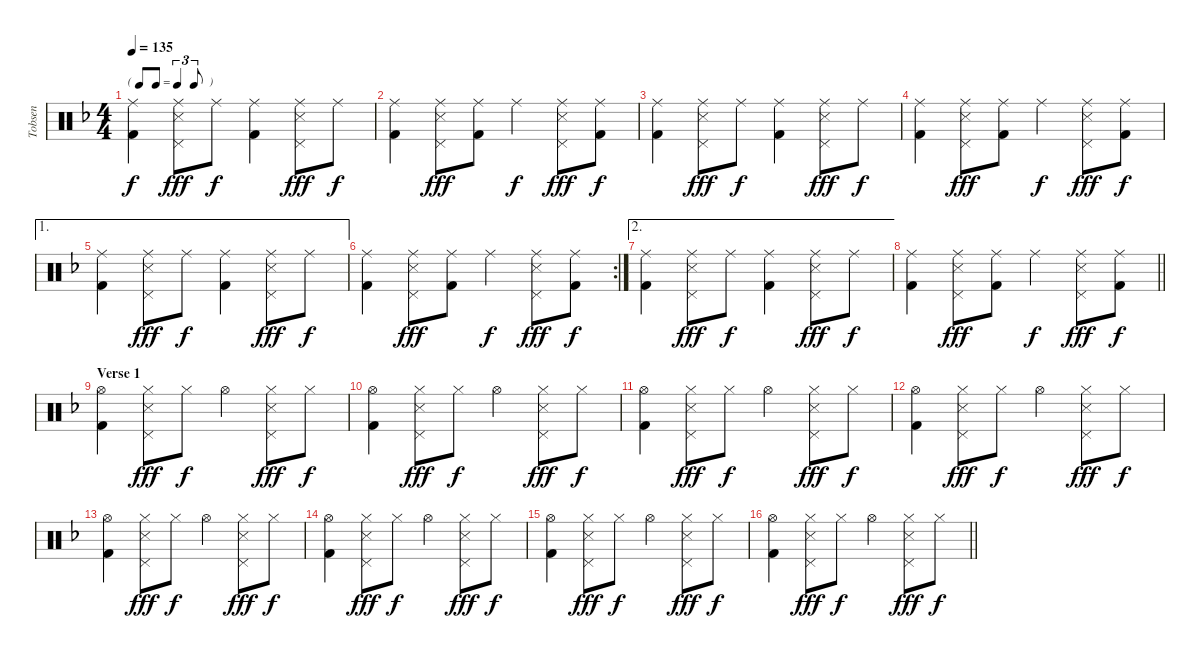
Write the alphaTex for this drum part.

\track ("Tobsen" "Tobsen") {instrument percussion}
\staff {score}
\articulation defaults
\ts (4 4)
\tf triplet8th
\tempo 135
\clef neutral
\ks f
("Ride (middle)" "Kick (hit) 2").4{dy f} ("Ride (middle)" "Pedal Hi-Hat (hit)" "Snare (side stick) 3").8{dy fff} "Ride (middle)".8{dy f} ("Ride (middle)" "Kick (hit) 2").4 ("Ride (middle)" "Pedal Hi-Hat (hit)" "Snare (side stick) 3").8{dy fff} "Ride (middle)".8{dy f} |
("Ride (middle)" "Kick (hit) 2").4 ("Ride (middle)" "Pedal Hi-Hat (hit)" "Snare (side stick) 3").8{dy fff} ("Ride (middle)" "Kick (hit) 2").8 "Ride (middle)".4{dy f} ("Ride (middle)" "Pedal Hi-Hat (hit)" "Snare (side stick) 3").8{dy fff} ("Ride (middle)" "Kick (hit) 2").8{dy f} |
("Ride (middle)" "Kick (hit) 2").4 ("Ride (middle)" "Pedal Hi-Hat (hit)" "Snare (side stick) 3").8{dy fff} "Ride (middle)".8{dy f} ("Ride (middle)" "Kick (hit) 2").4 ("Ride (middle)" "Pedal Hi-Hat (hit)" "Snare (side stick) 3").8{dy fff} "Ride (middle)".8{dy f} |
("Ride (middle)" "Kick (hit) 2").4 ("Ride (middle)" "Pedal Hi-Hat (hit)" "Snare (side stick) 3").8{dy fff} ("Ride (middle)" "Kick (hit) 2").8 "Ride (middle)".4{dy f} ("Ride (middle)" "Pedal Hi-Hat (hit)" "Snare (side stick) 3").8{dy fff} ("Ride (middle)" "Kick (hit) 2").8{dy f} |
\ae 1
("Ride (middle)" "Kick (hit) 2").4 ("Ride (middle)" "Pedal Hi-Hat (hit)" "Snare (side stick) 3").8{dy fff} "Ride (middle)".8{dy f} ("Ride (middle)" "Kick (hit) 2").4 ("Ride (middle)" "Pedal Hi-Hat (hit)" "Snare (side stick) 3").8{dy fff} "Ride (middle)".8{dy f} |
\rc 2
("Ride (middle)" "Kick (hit) 2").4 ("Ride (middle)" "Pedal Hi-Hat (hit)" "Snare (side stick) 3").8{dy fff} ("Ride (middle)" "Kick (hit) 2").8 "Ride (middle)".4{dy f} ("Ride (middle)" "Pedal Hi-Hat (hit)" "Snare (side stick) 3").8{dy fff} ("Ride (middle)" "Kick (hit) 2").8{dy f} |
\ae 2
("Ride (middle)" "Kick (hit) 2").4 ("Ride (middle)" "Pedal Hi-Hat (hit)" "Snare (side stick) 3").8{dy fff} "Ride (middle)".8{dy f} ("Ride (middle)" "Kick (hit) 2").4 ("Ride (middle)" "Pedal Hi-Hat (hit)" "Snare (side stick) 3").8{dy fff} "Ride (middle)".8{dy f} |
\barLineRight lightlight
("Ride (middle)" "Kick (hit) 2").4 ("Ride (middle)" "Pedal Hi-Hat (hit)" "Snare (side stick) 3").8{dy fff} ("Ride (middle)" "Kick (hit) 2").8 "Ride (middle)".4{dy f} ("Ride (middle)" "Pedal Hi-Hat (hit)" "Snare (side stick) 3").8{dy fff} ("Ride (middle)" "Kick (hit) 2").8{dy f} |
\section ("" "Verse 1")
("Hi-Hat (open)" "Kick (hit) 2").4{volume 10} ("Hi-Hat (closed)" "Pedal Hi-Hat (hit)" "Snare (side stick) 3").8{dy fff} "Hi-Hat (closed)".8{dy f} "Hi-Hat (open)".4 ("Hi-Hat (closed)" "Pedal Hi-Hat (hit)" "Snare (side stick) 3").8{dy fff} "Hi-Hat (closed)".8{dy f} |
("Hi-Hat (open)" "Kick (hit) 2").4 ("Hi-Hat (closed)" "Pedal Hi-Hat (hit)" "Snare (side stick) 3").8{dy fff} "Hi-Hat (closed)".8{dy f} "Hi-Hat (open)".4 ("Hi-Hat (closed)" "Pedal Hi-Hat (hit)" "Snare (side stick) 3").8{dy fff} "Hi-Hat (closed)".8{dy f} |
("Hi-Hat (open)" "Kick (hit) 2").4 ("Hi-Hat (closed)" "Pedal Hi-Hat (hit)" "Snare (side stick) 3").8{dy fff} "Hi-Hat (closed)".8{dy f} "Hi-Hat (open)".4 ("Hi-Hat (closed)" "Pedal Hi-Hat (hit)" "Snare (side stick) 3").8{dy fff} "Hi-Hat (closed)".8{dy f} |
("Hi-Hat (open)" "Kick (hit) 2").4 ("Hi-Hat (closed)" "Pedal Hi-Hat (hit)" "Snare (side stick) 3").8{dy fff} "Hi-Hat (closed)".8{dy f} "Hi-Hat (open)".4 ("Hi-Hat (closed)" "Pedal Hi-Hat (hit)" "Snare (side stick) 3").8{dy fff} "Hi-Hat (closed)".8{dy f} |
("Hi-Hat (open)" "Kick (hit) 2").4 ("Hi-Hat (closed)" "Pedal Hi-Hat (hit)" "Snare (side stick) 3").8{dy fff} "Hi-Hat (closed)".8{dy f} "Hi-Hat (open)".4 ("Hi-Hat (closed)" "Pedal Hi-Hat (hit)" "Snare (side stick) 3").8{dy fff} "Hi-Hat (closed)".8{dy f} |
("Hi-Hat (open)" "Kick (hit) 2").4 ("Hi-Hat (closed)" "Pedal Hi-Hat (hit)" "Snare (side stick) 3").8{dy fff} "Hi-Hat (closed)".8{dy f} "Hi-Hat (open)".4 ("Hi-Hat (closed)" "Pedal Hi-Hat (hit)" "Snare (side stick) 3").8{dy fff} "Hi-Hat (closed)".8{dy f} |
("Hi-Hat (open)" "Kick (hit) 2").4 ("Hi-Hat (closed)" "Pedal Hi-Hat (hit)" "Snare (side stick) 3").8{dy fff} "Hi-Hat (closed)".8{dy f} "Hi-Hat (open)".4 ("Hi-Hat (closed)" "Pedal Hi-Hat (hit)" "Snare (side stick) 3").8{dy fff} "Hi-Hat (closed)".8{dy f} |
\barLineRight lightlight
("Hi-Hat (open)" "Kick (hit) 2").4 ("Hi-Hat (closed)" "Pedal Hi-Hat (hit)" "Snare (side stick) 3").8{dy fff} "Hi-Hat (closed)".8{dy f} "Hi-Hat (open)".4 ("Hi-Hat (closed)" "Pedal Hi-Hat (hit)" "Snare (side stick) 3").8{dy fff} "Hi-Hat (closed)".8{dy f}
